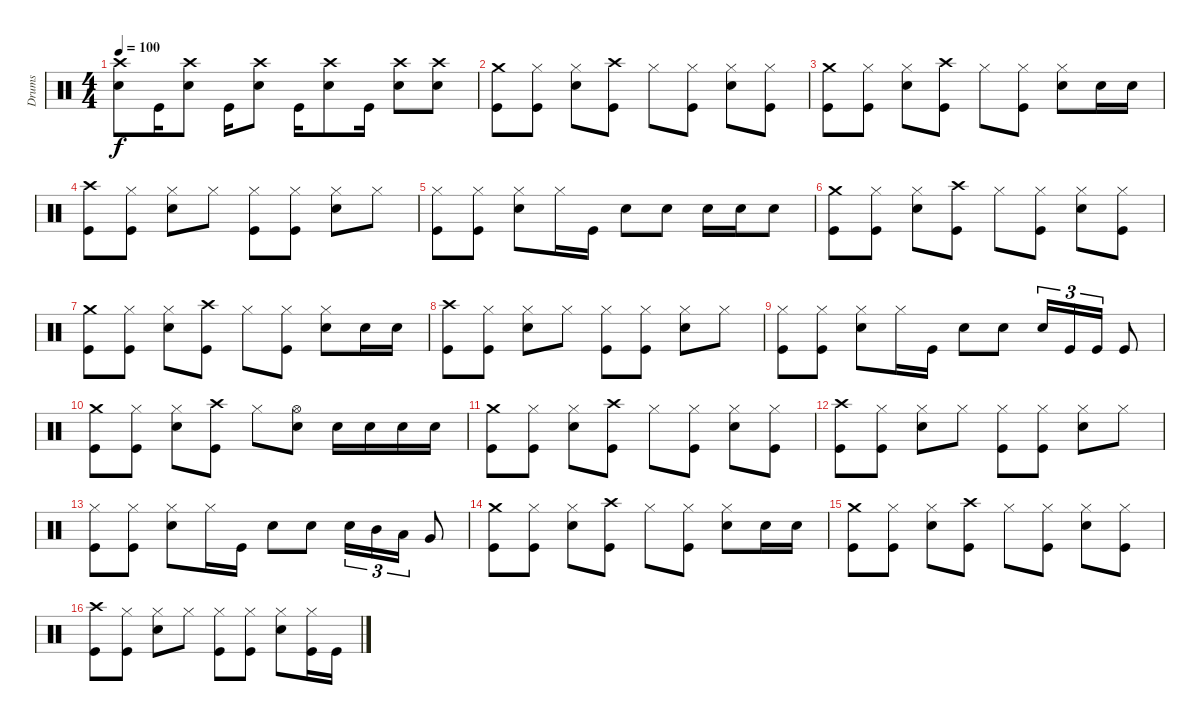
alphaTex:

\track ("Drums" "Drums") {instrument percussion}
\staff {score}
\articulation defaults
\ts (4 4)
\tempo 100
\clef neutral
\ks c
("Crash high (hit)" "Snare (hit) 2").8{dy f} "Kick (hit)".16 ("Crash high (hit)" "Snare (hit) 2").8 "Kick (hit)".16 ("Crash high (hit)" "Snare (hit) 2").8 "Kick (hit)".16 ("Crash high (hit)" "Snare (hit) 2").8 "Kick (hit)".16 ("Crash high (hit)" "Snare (hit) 2").8 ("Crash high (hit)" "Snare (hit) 2").8 |
("Crash medium (hit)" "Kick (hit)").8 ("Hi-Hat (closed)" "Kick (hit)").8 ("Hi-Hat (closed)" "Snare (hit) 2").8 ("Crash high (hit)" "Kick (hit)").8 "Hi-Hat (closed)".8 ("Hi-Hat (closed)" "Kick (hit)").8 ("Hi-Hat (closed)" "Snare (hit) 2").8 ("Hi-Hat (closed)" "Kick (hit)").8 |
("Crash medium (hit)" "Kick (hit)").8 ("Hi-Hat (closed)" "Kick (hit)").8 ("Hi-Hat (closed)" "Snare (hit) 2").8 ("Crash high (hit)" "Kick (hit)").8 "Hi-Hat (closed)".8 ("Hi-Hat (closed)" "Kick (hit)").8 ("Hi-Hat (closed)" "Snare (hit) 2").8 "Snare (hit) 2".16 "Snare (hit) 2".16 |
("Crash high (hit)" "Kick (hit)").8 ("Hi-Hat (closed)" "Kick (hit)").8 ("Hi-Hat (closed)" "Snare (hit) 2").8 "Hi-Hat (closed)".8 ("Hi-Hat (closed)" "Kick (hit)").8 ("Hi-Hat (closed)" "Kick (hit)").8 ("Hi-Hat (closed)" "Snare (hit) 2").8 "Hi-Hat (closed)".8 |
("Hi-Hat (closed)" "Kick (hit)").8 ("Hi-Hat (closed)" "Kick (hit)").8 ("Hi-Hat (closed)" "Snare (hit) 2").8 "Hi-Hat (closed)".16 "Kick (hit)".16 "Snare (hit) 2".8 "Snare (hit) 2".8 "Snare (hit) 2".16 "Snare (hit) 2".16 "Snare (hit) 2".8 |
("Crash medium (hit)" "Kick (hit)").8 ("Hi-Hat (closed)" "Kick (hit)").8 ("Hi-Hat (closed)" "Snare (hit) 2").8 ("Crash high (hit)" "Kick (hit)").8 "Hi-Hat (closed)".8 ("Hi-Hat (closed)" "Kick (hit)").8 ("Hi-Hat (closed)" "Snare (hit) 2").8 ("Hi-Hat (closed)" "Kick (hit)").8 |
("Crash medium (hit)" "Kick (hit)").8 ("Hi-Hat (closed)" "Kick (hit)").8 ("Hi-Hat (closed)" "Snare (hit) 2").8 ("Crash high (hit)" "Kick (hit)").8 "Hi-Hat (closed)".8 ("Hi-Hat (closed)" "Kick (hit)").8 ("Hi-Hat (closed)" "Snare (hit) 2").8 "Snare (hit) 2".16 "Snare (hit) 2".16 |
("Crash high (hit)" "Kick (hit)").8 ("Hi-Hat (closed)" "Kick (hit)").8 ("Hi-Hat (closed)" "Snare (hit) 2").8 "Hi-Hat (closed)".8 ("Hi-Hat (closed)" "Kick (hit)").8 ("Hi-Hat (closed)" "Kick (hit)").8 ("Hi-Hat (closed)" "Snare (hit) 2").8 "Hi-Hat (closed)".8 |
("Hi-Hat (closed)" "Kick (hit)").8 ("Hi-Hat (closed)" "Kick (hit)").8 ("Hi-Hat (closed)" "Snare (hit) 2").8 "Hi-Hat (closed)".16 "Kick (hit)".16 "Snare (hit) 2".8 "Snare (hit) 2".8 "Snare (hit) 2".16{tu (3 2)} "Kick (hit)".16{tu (3 2)} "Kick (hit)".16{tu (3 2)} "Kick (hit)".8 |
("Crash medium (hit)" "Kick (hit)").8 ("Hi-Hat (closed)" "Kick (hit)").8 ("Hi-Hat (closed)" "Snare (hit) 2").8 ("Crash high (hit)" "Kick (hit)").8 "Hi-Hat (closed)".8 ("Hi-Hat (open)" "Snare (hit) 2").8 "Snare (hit) 2".16 "Snare (hit) 2".16 "Snare (hit) 2".16 "Snare (hit) 2".16 |
("Crash medium (hit)" "Kick (hit)").8 ("Hi-Hat (closed)" "Kick (hit)").8 ("Hi-Hat (closed)" "Snare (hit) 2").8 ("Crash high (hit)" "Kick (hit)").8 "Hi-Hat (closed)".8 ("Hi-Hat (closed)" "Kick (hit)").8 ("Hi-Hat (closed)" "Snare (hit) 2").8 ("Hi-Hat (closed)" "Kick (hit)").8 |
("Crash high (hit)" "Kick (hit)").8 ("Hi-Hat (closed)" "Kick (hit)").8 ("Hi-Hat (closed)" "Snare (hit) 2").8 "Hi-Hat (closed)".8 ("Hi-Hat (closed)" "Kick (hit)").8 ("Hi-Hat (closed)" "Kick (hit)").8 ("Hi-Hat (closed)" "Snare (hit) 2").8 "Hi-Hat (closed)".8 |
("Hi-Hat (closed)" "Kick (hit)").8 ("Hi-Hat (closed)" "Kick (hit)").8 ("Hi-Hat (closed)" "Snare (hit) 2").8 "Hi-Hat (closed)".16 "Kick (hit)".16 "Snare (hit) 2".8 "Snare (hit) 2".8 "Snare (hit) 2".16{tu (3 2)} "Mid Tom (hit)".16{tu (3 2)} "Low Tom (hit)".16{tu (3 2)} "Very Low Tom (hit)".8 |
("Crash medium (hit)" "Kick (hit)").8 ("Hi-Hat (closed)" "Kick (hit)").8 ("Hi-Hat (closed)" "Snare (hit) 2").8 ("Crash high (hit)" "Kick (hit)").8 "Hi-Hat (closed)".8 ("Hi-Hat (closed)" "Kick (hit)").8 ("Hi-Hat (closed)" "Snare (hit) 2").8 "Snare (hit) 2".16 "Snare (hit) 2".16 |
("Crash medium (hit)" "Kick (hit)").8 ("Hi-Hat (closed)" "Kick (hit)").8 ("Hi-Hat (closed)" "Snare (hit) 2").8 ("Crash high (hit)" "Kick (hit)").8 "Hi-Hat (closed)".8 ("Hi-Hat (closed)" "Kick (hit)").8 ("Hi-Hat (closed)" "Snare (hit) 2").8 ("Hi-Hat (closed)" "Kick (hit)").8 |
("Crash high (hit)" "Kick (hit)").8 ("Hi-Hat (closed)" "Kick (hit)").8 ("Hi-Hat (closed)" "Snare (hit) 2").8 "Hi-Hat (closed)".8 ("Hi-Hat (closed)" "Kick (hit)").8 ("Hi-Hat (closed)" "Kick (hit)").8 ("Hi-Hat (closed)" "Snare (hit) 2").8 ("Hi-Hat (closed)" "Kick (hit)").16 "Kick (hit)".16
